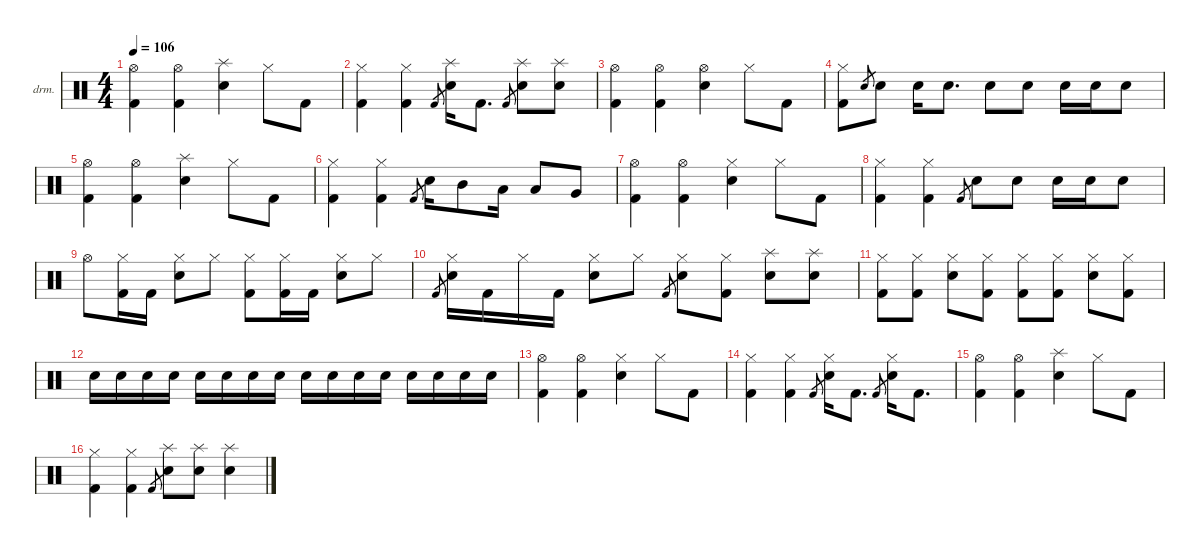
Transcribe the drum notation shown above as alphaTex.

\defaultSystemsLayout 4
\hideDynamics
\bracketExtendMode nobrackets
\firstSystemTrackNameOrientation horizontal
\otherSystemsTrackNameOrientation horizontal
\track ("Lars Ulrich" "drm.") {instrument percussion}
\staff {score}
\articulation defaults
\ts (4 4)
\tempo 106
\clef neutral
\ks c
("Hi-Hat (open)" "Kick (hit) 2").4{dy f} ("Hi-Hat (open)" "Kick (hit) 2").4 ("Splash (hit)" "Snare (hit) 2").4{dy fff} "Hi-Hat (closed)".8{dy f} "Kick (hit) 2".8 |
("Hi-Hat (closed)" "Kick (hit) 2").4 ("Hi-Hat (closed)" "Kick (hit) 2").4 "Kick (hit) 2".8{gr dy mf} ("Splash (hit)" "Snare (hit) 2").16{dy fff} "Kick (hit) 2".8{d dy f} "Kick (hit) 2".8{gr dy mf} ("Splash (hit)" "Snare (hit) 2").8{dy fff} ("Splash (hit)" "Snare (hit) 2").8 |
("Hi-Hat (open)" "Kick (hit) 2").4{dy f} ("Hi-Hat (open)" "Kick (hit) 2").4 ("Hi-Hat (open)" "Snare (hit) 2").4 "Hi-Hat (closed)".8 "Kick (hit) 2".8 |
("Hi-Hat (closed)" "Kick (hit) 2").8 "Electric Snare (hit)".8{gr dy mf} "Snare (hit) 2".8{dy f} "Snare (hit) 2".16 "Snare (hit) 2".8{d} "Snare (hit) 2".8 "Snare (hit) 2".8 "Snare (hit) 2".16 "Snare (hit) 2".16 "Snare (hit) 2".8 |
("Hi-Hat (open)" "Kick (hit) 2").4 ("Hi-Hat (open)" "Kick (hit) 2").4 ("Splash (hit)" "Snare (hit) 2").4{dy fff} "Hi-Hat (closed)".8{dy f} "Kick (hit) 2".8 |
("Hi-Hat (closed)" "Kick (hit) 2").4 ("Hi-Hat (closed)" "Kick (hit) 2").4 "Kick (hit) 2".8{gr dy mf} "Snare (hit) 2".16{dy f} "Mid Tom (hit)".8 "Low Tom (hit)".16 "Low Tom (hit)".8 "Very Low Tom (hit)".8 |
("Hi-Hat (open)" "Kick (hit) 2").4 ("Hi-Hat (open)" "Kick (hit) 2").4 ("Hi-Hat (closed)" "Snare (hit) 2").4 "Hi-Hat (closed)".8 "Kick (hit) 2".8 |
("Hi-Hat (closed)" "Kick (hit) 2").4 ("Hi-Hat (closed)" "Kick (hit) 2").4 "Kick (hit) 2".8{gr dy mf} "Snare (hit) 2".8{dy f} "Snare (hit) 2".8 "Snare (hit) 2".16 "Snare (hit) 2".16 "Snare (hit) 2".8 |
"Hi-Hat (open)".8 ("Hi-Hat (closed)" "Kick (hit) 2").16 "Kick (hit) 2".16 ("Hi-Hat (closed)" "Snare (hit) 2").8 "Hi-Hat (closed)".8 ("Hi-Hat (closed)" "Kick (hit) 2").8 ("Hi-Hat (closed)" "Kick (hit) 2").16 "Kick (hit) 2".16 ("Hi-Hat (closed)" "Snare (hit) 2").8 "Hi-Hat (closed)".8 |
"Kick (hit) 2".8{gr dy mf} ("Hi-Hat (closed)" "Snare (hit) 2").16{dy f} "Kick (hit) 2".16 "Hi-Hat (closed)".16 "Kick (hit) 2".16 ("Hi-Hat (closed)" "Snare (hit) 2").8 "Hi-Hat (closed)".8 "Kick (hit) 2".8{gr dy mf} ("Hi-Hat (closed)" "Snare (hit) 2").8{dy f} ("Hi-Hat (closed)" "Kick (hit) 2").8 ("Splash (hit)" "Snare (hit) 2").8{dy fff} ("Splash (hit)" "Snare (hit) 2").8 |
("Hi-Hat (closed)" "Kick (hit) 2").8{dy f} ("Hi-Hat (closed)" "Kick (hit) 2").8 ("Hi-Hat (closed)" "Snare (hit) 2").8 ("Hi-Hat (closed)" "Kick (hit) 2").8 ("Hi-Hat (closed)" "Kick (hit) 2").8 ("Hi-Hat (closed)" "Kick (hit) 2").8 ("Hi-Hat (closed)" "Snare (hit) 2").8 ("Hi-Hat (closed)" "Kick (hit) 2").8 |
"Snare (hit) 2".16{dy pp} "Snare (hit) 2".16 "Snare (hit) 2".16{dy p} "Snare (hit) 2".16 "Snare (hit) 2".16{dy mp} "Snare (hit) 2".16 "Snare (hit) 2".16{dy mf} "Snare (hit) 2".16 "Snare (hit) 2".16{dy f} "Snare (hit) 2".16 "Snare (hit) 2".16 "Snare (hit) 2".16 "Snare (hit) 2".16 "Snare (hit) 2".16 "Snare (hit) 2".16 "Snare (hit) 2".16 |
("Hi-Hat (open)" "Kick (hit) 2").4 ("Hi-Hat (open)" "Kick (hit) 2").4 ("Hi-Hat (closed)" "Snare (hit) 2").4 "Hi-Hat (closed)".8 "Kick (hit) 2".8 |
("Hi-Hat (closed)" "Kick (hit) 2").4 ("Hi-Hat (closed)" "Kick (hit) 2").4 "Kick (hit) 2".8{gr dy mf} ("Hi-Hat (closed)" "Snare (hit) 2").16{dy f} "Kick (hit) 2".8{d} "Kick (hit) 2".8{gr dy mf} ("Hi-Hat (closed)" "Snare (hit) 2").16{dy f} "Kick (hit) 2".8{d} |
("Hi-Hat (open)" "Kick (hit) 2").4 ("Hi-Hat (open)" "Kick (hit) 2").4 ("Splash (hit)" "Snare (hit) 2").4{dy fff} "Hi-Hat (closed)".8{dy f} "Kick (hit) 2".8 |
("Hi-Hat (closed)" "Kick (hit) 2").4 ("Hi-Hat (closed)" "Kick (hit) 2").4 "Kick (hit) 2".8{gr dy mf} ("Splash (hit)" "Snare (hit) 2").8{dy fff} ("Splash (hit)" "Snare (hit) 2").8 ("Splash (hit)" "Snare (hit) 2").4
